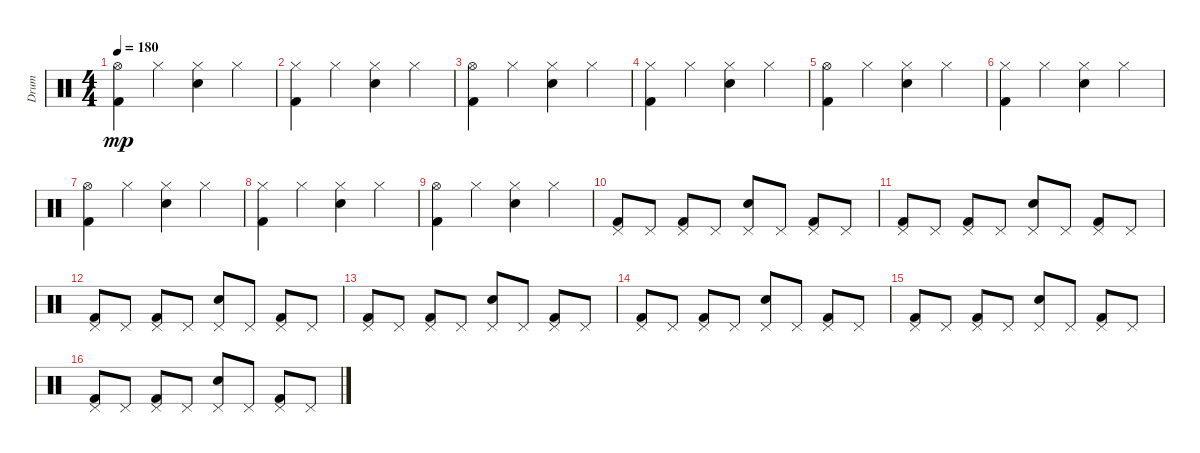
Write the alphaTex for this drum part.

\track ("Drum" "Drum") {instrument percussion}
\staff {score}
\articulation defaults
\ts (4 4)
\tempo 180
\clef neutral
\ks c
("Hi-Hat (open)" "Kick (hit) 2").4{dy mp} "Hi-Hat (closed)".4 ("Hi-Hat (closed)" "Snare (hit) 2").4 "Hi-Hat (closed)".4 |
("Hi-Hat (closed)" "Kick (hit) 2").4 "Hi-Hat (closed)".4 ("Hi-Hat (closed)" "Snare (hit) 2").4 "Hi-Hat (closed)".4 |
("Hi-Hat (open)" "Kick (hit) 2").4 "Hi-Hat (closed)".4 ("Hi-Hat (closed)" "Snare (hit) 2").4 "Hi-Hat (closed)".4 |
("Hi-Hat (closed)" "Kick (hit) 2").4 "Hi-Hat (closed)".4 ("Hi-Hat (closed)" "Snare (hit) 2").4 "Hi-Hat (closed)".4 |
("Hi-Hat (open)" "Kick (hit) 2").4 "Hi-Hat (closed)".4 ("Hi-Hat (closed)" "Snare (hit) 2").4 "Hi-Hat (closed)".4 |
("Hi-Hat (closed)" "Kick (hit) 2").4 "Hi-Hat (closed)".4 ("Hi-Hat (closed)" "Snare (hit) 2").4 "Hi-Hat (closed)".4 |
("Hi-Hat (open)" "Kick (hit) 2").4 "Hi-Hat (closed)".4 ("Hi-Hat (closed)" "Snare (hit) 2").4 "Hi-Hat (closed)".4 |
("Hi-Hat (closed)" "Kick (hit) 2").4 "Hi-Hat (closed)".4 ("Hi-Hat (closed)" "Snare (hit) 2").4 "Hi-Hat (closed)".4 |
("Hi-Hat (open)" "Kick (hit) 2").4 "Hi-Hat (closed)".4 ("Hi-Hat (closed)" "Snare (hit) 2").4 "Hi-Hat (closed)".4 |
("Pedal Hi-Hat (hit)" "Kick (hit) 2").8 "Pedal Hi-Hat (hit)".8 ("Pedal Hi-Hat (hit)" "Kick (hit) 2").8 "Pedal Hi-Hat (hit)".8 ("Pedal Hi-Hat (hit)" "Snare (hit) 2").8 "Pedal Hi-Hat (hit)".8 ("Pedal Hi-Hat (hit)" "Kick (hit) 2").8 "Pedal Hi-Hat (hit)".8 |
("Pedal Hi-Hat (hit)" "Kick (hit) 2").8 "Pedal Hi-Hat (hit)".8 ("Pedal Hi-Hat (hit)" "Kick (hit) 2").8 "Pedal Hi-Hat (hit)".8 ("Pedal Hi-Hat (hit)" "Snare (hit) 2").8 "Pedal Hi-Hat (hit)".8 ("Pedal Hi-Hat (hit)" "Kick (hit) 2").8 "Pedal Hi-Hat (hit)".8 |
("Pedal Hi-Hat (hit)" "Kick (hit) 2").8 "Pedal Hi-Hat (hit)".8 ("Pedal Hi-Hat (hit)" "Kick (hit) 2").8 "Pedal Hi-Hat (hit)".8 ("Pedal Hi-Hat (hit)" "Snare (hit) 2").8 "Pedal Hi-Hat (hit)".8 ("Pedal Hi-Hat (hit)" "Kick (hit) 2").8 "Pedal Hi-Hat (hit)".8 |
("Pedal Hi-Hat (hit)" "Kick (hit) 2").8 "Pedal Hi-Hat (hit)".8 ("Pedal Hi-Hat (hit)" "Kick (hit) 2").8 "Pedal Hi-Hat (hit)".8 ("Pedal Hi-Hat (hit)" "Snare (hit) 2").8 "Pedal Hi-Hat (hit)".8 ("Pedal Hi-Hat (hit)" "Kick (hit) 2").8 "Pedal Hi-Hat (hit)".8 |
("Pedal Hi-Hat (hit)" "Kick (hit) 2").8 "Pedal Hi-Hat (hit)".8 ("Pedal Hi-Hat (hit)" "Kick (hit) 2").8 "Pedal Hi-Hat (hit)".8 ("Pedal Hi-Hat (hit)" "Snare (hit) 2").8 "Pedal Hi-Hat (hit)".8 ("Pedal Hi-Hat (hit)" "Kick (hit) 2").8 "Pedal Hi-Hat (hit)".8 |
("Pedal Hi-Hat (hit)" "Kick (hit) 2").8 "Pedal Hi-Hat (hit)".8 ("Pedal Hi-Hat (hit)" "Kick (hit) 2").8 "Pedal Hi-Hat (hit)".8 ("Pedal Hi-Hat (hit)" "Snare (hit) 2").8 "Pedal Hi-Hat (hit)".8 ("Pedal Hi-Hat (hit)" "Kick (hit) 2").8 "Pedal Hi-Hat (hit)".8 |
("Pedal Hi-Hat (hit)" "Kick (hit) 2").8 "Pedal Hi-Hat (hit)".8 ("Pedal Hi-Hat (hit)" "Kick (hit) 2").8 "Pedal Hi-Hat (hit)".8 ("Pedal Hi-Hat (hit)" "Snare (hit) 2").8 "Pedal Hi-Hat (hit)".8 ("Pedal Hi-Hat (hit)" "Kick (hit) 2").8 "Pedal Hi-Hat (hit)".8
